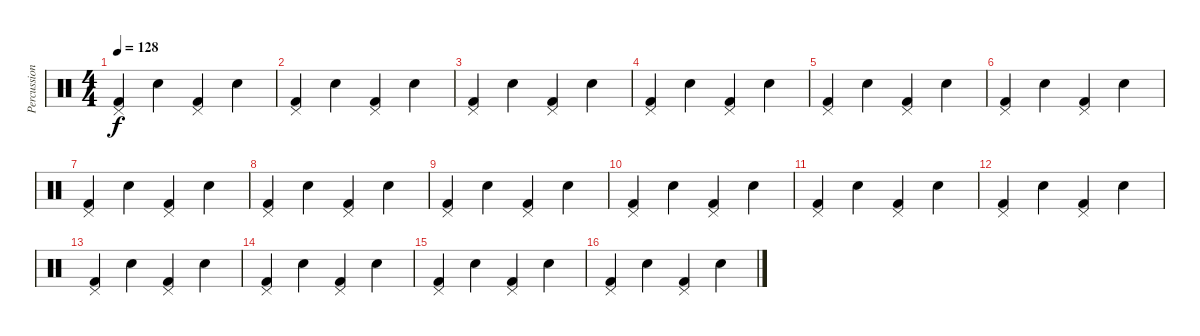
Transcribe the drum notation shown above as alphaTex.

\track ("Percussion" "Percussion") {instrument percussion}
\staff {score}
\articulation defaults
\ts (4 4)
\tempo 128
\clef neutral
\ks c
("Kick (hit) 2" "Pedal Hi-Hat (hit)").4{dy f} "Snare (hit) 2".4 ("Pedal Hi-Hat (hit)" "Kick (hit) 2").4 "Snare (hit) 2".4 |
("Kick (hit) 2" "Pedal Hi-Hat (hit)").4 "Snare (hit) 2".4 ("Pedal Hi-Hat (hit)" "Kick (hit) 2").4 "Snare (hit) 2".4 |
("Kick (hit) 2" "Pedal Hi-Hat (hit)").4 "Snare (hit) 2".4 ("Pedal Hi-Hat (hit)" "Kick (hit) 2").4 "Snare (hit) 2".4 |
("Kick (hit) 2" "Pedal Hi-Hat (hit)").4 "Snare (hit) 2".4 ("Pedal Hi-Hat (hit)" "Kick (hit) 2").4 "Snare (hit) 2".4 |
("Kick (hit) 2" "Pedal Hi-Hat (hit)").4 "Snare (hit) 2".4 ("Pedal Hi-Hat (hit)" "Kick (hit) 2").4 "Snare (hit) 2".4 |
("Kick (hit) 2" "Pedal Hi-Hat (hit)").4 "Snare (hit) 2".4 ("Pedal Hi-Hat (hit)" "Kick (hit) 2").4 "Snare (hit) 2".4 |
("Kick (hit) 2" "Pedal Hi-Hat (hit)").4 "Snare (hit) 2".4 ("Pedal Hi-Hat (hit)" "Kick (hit) 2").4 "Snare (hit) 2".4 |
("Kick (hit) 2" "Pedal Hi-Hat (hit)").4 "Snare (hit) 2".4 ("Pedal Hi-Hat (hit)" "Kick (hit) 2").4 "Snare (hit) 2".4 |
("Kick (hit) 2" "Pedal Hi-Hat (hit)").4 "Snare (hit) 2".4 ("Pedal Hi-Hat (hit)" "Kick (hit) 2").4 "Snare (hit) 2".4 |
("Kick (hit) 2" "Pedal Hi-Hat (hit)").4 "Snare (hit) 2".4 ("Pedal Hi-Hat (hit)" "Kick (hit) 2").4 "Snare (hit) 2".4 |
("Kick (hit) 2" "Pedal Hi-Hat (hit)").4 "Snare (hit) 2".4 ("Pedal Hi-Hat (hit)" "Kick (hit) 2").4 "Snare (hit) 2".4 |
("Kick (hit) 2" "Pedal Hi-Hat (hit)").4 "Snare (hit) 2".4 ("Pedal Hi-Hat (hit)" "Kick (hit) 2").4 "Snare (hit) 2".4 |
("Kick (hit) 2" "Pedal Hi-Hat (hit)").4 "Snare (hit) 2".4 ("Pedal Hi-Hat (hit)" "Kick (hit) 2").4 "Snare (hit) 2".4 |
("Kick (hit) 2" "Pedal Hi-Hat (hit)").4 "Snare (hit) 2".4 ("Pedal Hi-Hat (hit)" "Kick (hit) 2").4 "Snare (hit) 2".4 |
("Kick (hit) 2" "Pedal Hi-Hat (hit)").4 "Snare (hit) 2".4 ("Pedal Hi-Hat (hit)" "Kick (hit) 2").4 "Snare (hit) 2".4 |
("Kick (hit) 2" "Pedal Hi-Hat (hit)").4 "Snare (hit) 2".4 ("Pedal Hi-Hat (hit)" "Kick (hit) 2").4 "Snare (hit) 2".4
